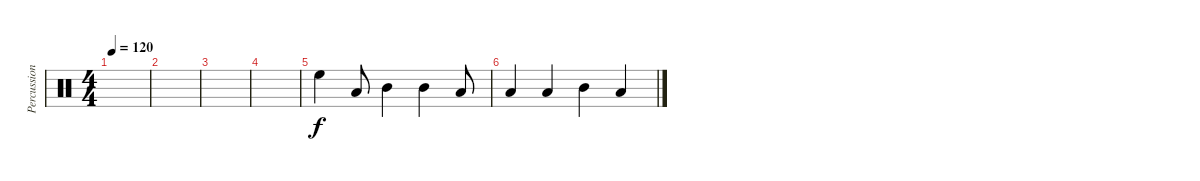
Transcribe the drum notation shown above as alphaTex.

\track ("Percussions" "Percussion") {instrument percussion}
\staff {score}
\articulation defaults
\ts (4 4)
\tempo 120
\clef neutral
\ks c
|
|
|
|
"High Floor Tom (hit)".4 "Low Tom (hit)".8 "Mid Tom (hit)".4 "Mid Tom (hit)".4 "Low Tom (hit)".8 |
"Low Tom (hit)".4 "Low Tom (hit)".4 "Mid Tom (hit)".4 "Low Floor Tom (hit)".4
